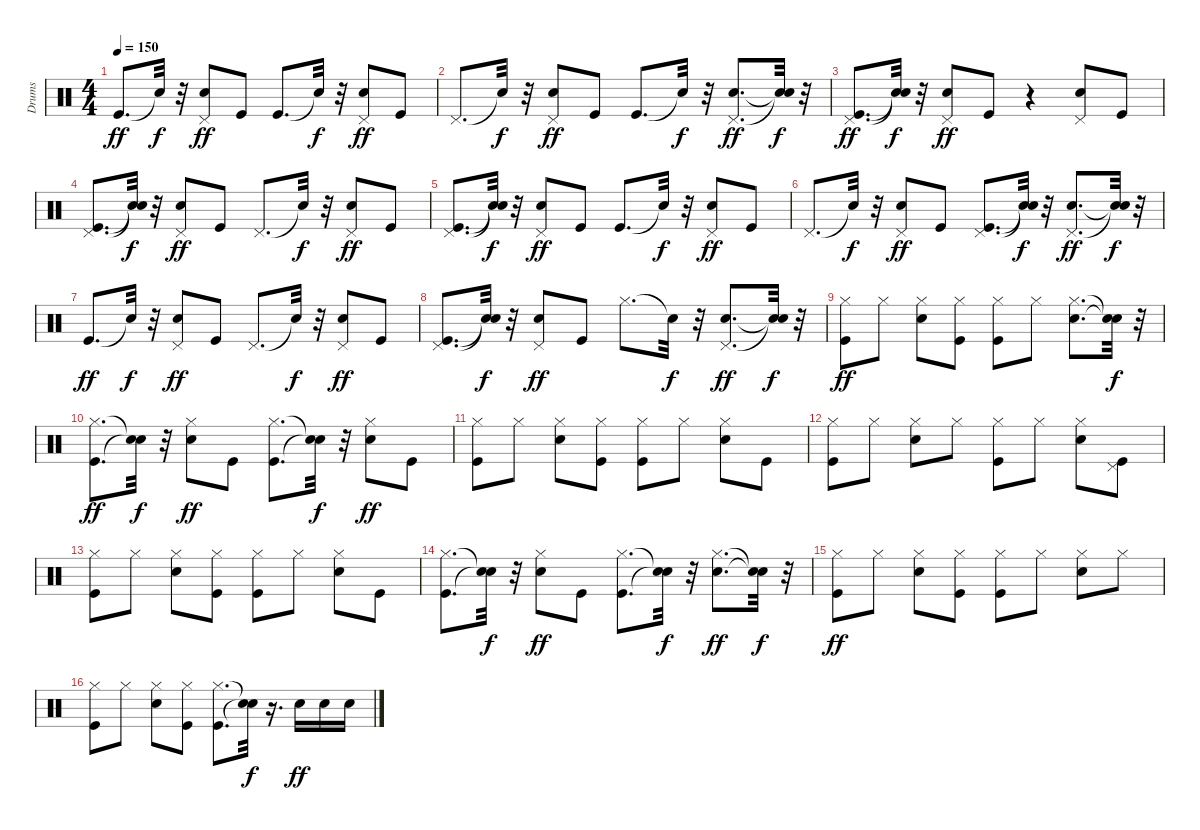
\track ("Drums" "Drums") {instrument percussion}
\staff {score}
\articulation defaults
\ts (4 4)
\tempo 150
\clef neutral
\ks c "Kick (hit)".8{d dy ff} "Snare (hit)"{t}.32{dy f}
r.32 ("Snare (hit) 2" "Pedal Hi-Hat (hit)").8{dy ff} "Kick (hit)".8 "Kick (hit)".8{d} "Snare (hit)"{t}.32{dy f} r.32 ("Snare (hit) 2" "Pedal Hi-Hat (hit)").8{dy ff} "Kick (hit)".8 |
"Pedal Hi-Hat (hit)".8{d} "Snare (hit)"{t}.32{dy f} r.32 ("Snare (hit) 2" "Pedal Hi-Hat (hit)").8{dy ff} "Kick (hit)".8 "Kick (hit)".8{d} "Snare (hit)"{t}.32{dy f} r.32 ("Snare (hit) 2" "Pedal Hi-Hat (hit)").8{d dy ff} ("Snare (hit)"{t} "Snare (hit)"{t}).32{dy f} r.32 |
("Kick (hit)" "Pedal Hi-Hat (hit)").8{d dy ff} ("Snare (hit)"{t} "Snare (hit)"{t}).32{dy f} r.32 ("Snare (hit) 2" "Pedal Hi-Hat (hit)").8{dy ff} "Kick (hit)".8 r.4 ("Snare (hit) 2" "Pedal Hi-Hat (hit)").8 "Kick (hit)".8 |
("Kick (hit)" "Pedal Hi-Hat (hit)").8{d} ("Snare (hit)"{t} "Snare (hit)"{t}).32{dy f} r.32 ("Snare (hit) 2" "Pedal Hi-Hat (hit)").8{dy ff} "Kick (hit)".8 "Pedal Hi-Hat (hit)".8{d} "Snare (hit)"{t}.32{dy f} r.32 ("Snare (hit) 2" "Pedal Hi-Hat (hit)").8{dy ff} "Kick (hit)".8 |
("Kick (hit)" "Pedal Hi-Hat (hit)").8{d} ("Snare (hit)"{t} "Snare (hit)"{t}).32{dy f} r.32 ("Snare (hit) 2" "Pedal Hi-Hat (hit)").8{dy ff} "Kick (hit)".8 "Kick (hit)".8{d} "Snare (hit)"{t}.32{dy f} r.32 ("Snare (hit) 2" "Pedal Hi-Hat (hit)").8{dy ff} "Kick (hit)".8 |
"Pedal Hi-Hat (hit)".8{d} "Snare (hit)"{t}.32{dy f} r.32 ("Snare (hit) 2" "Pedal Hi-Hat (hit)").8{dy ff} "Kick (hit)".8 ("Kick (hit)" "Pedal Hi-Hat (hit)").8{d} ("Snare (hit)"{t} "Snare (hit)"{t}).32{dy f} r.32 ("Snare (hit) 2" "Pedal Hi-Hat (hit)").8{d dy ff} ("Snare (hit)"{t} "Snare (hit)"{t}).32{dy f} r.32 |
"Kick (hit)".8{d dy ff} "Snare (hit)"{t}.32{dy f} r.32 ("Snare (hit) 2" "Pedal Hi-Hat (hit)").8{dy ff} "Kick (hit)".8 "Pedal Hi-Hat (hit)".8{d} "Snare (hit)"{t}.32{dy f} r.32 ("Snare (hit) 2" "Pedal Hi-Hat (hit)").8{dy ff} "Kick (hit)".8 |
("Kick (hit)" "Pedal Hi-Hat (hit)").8{d} ("Snare (hit)"{t} "Snare (hit)"{t}).32{dy f} r.32 ("Snare (hit) 2" "Pedal Hi-Hat (hit)").8{dy ff} "Kick (hit)".8 "Hi-Hat (closed)".8{d} "Snare (hit)"{t}.32{dy f} r.32 ("Snare (hit) 2" "Pedal Hi-Hat (hit)").8{d dy ff} ("Snare (hit)"{t} "Snare (hit)"{t}).32{dy f} r.32 |
("Kick (hit)" "Hi-Hat (closed)").8{dy ff} "Hi-Hat (closed)".8 ("Snare (hit) 2" "Hi-Hat (closed)").8 ("Kick (hit)" "Hi-Hat (closed)").8 ("Kick (hit)" "Hi-Hat (closed)").8 "Hi-Hat (closed)".8 ("Snare (hit) 2" "Hi-Hat (closed)").8{d} ("Snare (hit)"{t} "Snare (hit)"{t}).32{dy f} r.32 |
("Kick (hit)" "Hi-Hat (closed)").8{d dy ff} ("Snare (hit)"{t} "Snare (hit)"{t}).32{dy f} r.32 ("Snare (hit) 2" "Hi-Hat (closed)").8{dy ff} "Kick (hit)".8 ("Kick (hit)" "Hi-Hat (closed)").8{d} ("Snare (hit)"{t} "Snare (hit)"{t}).32{dy f} r.32 ("Snare (hit) 2" "Hi-Hat (closed)").8{dy ff} "Kick (hit)".8 |
("Kick (hit)" "Hi-Hat (closed)").8 "Hi-Hat (closed)".8 ("Snare (hit) 2" "Hi-Hat (closed)").8 ("Kick (hit)" "Hi-Hat (closed)").8 ("Kick (hit)" "Hi-Hat (closed)").8 "Hi-Hat (closed)".8 ("Snare (hit) 2" "Hi-Hat (closed)").8 "Kick (hit)".8 |
("Kick (hit)" "Hi-Hat (closed)").8 "Hi-Hat (closed)".8 ("Snare (hit) 2" "Hi-Hat (closed)").8 "Hi-Hat (closed)".8 ("Kick (hit)" "Hi-Hat (closed)").8 "Hi-Hat (closed)".8 ("Snare (hit) 2" "Hi-Hat (closed)").8 ("Kick (hit)" "Pedal Hi-Hat (hit)").8 |
("Kick (hit)" "Hi-Hat (closed)").8 "Hi-Hat (closed)".8 ("Snare (hit) 2" "Hi-Hat (closed)").8 ("Kick (hit)" "Hi-Hat (closed)").8 ("Kick (hit)" "Hi-Hat (closed)").8 "Hi-Hat (closed)".8 ("Snare (hit) 2" "Hi-Hat (closed)").8 "Kick (hit)".8 |
("Kick (hit)" "Hi-Hat (closed)").8{d} ("Snare (hit)"{t} "Snare (hit)"{t}).32{dy f} r.32 ("Snare (hit) 2" "Hi-Hat (closed)").8{dy ff} "Kick (hit)".8 ("Kick (hit)" "Hi-Hat (closed)").8{d} ("Snare (hit)"{t} "Snare (hit)"{t}).32{dy f} r.32 ("Snare (hit) 2" "Hi-Hat (closed)").8{d dy ff} ("Snare (hit)"{t} "Snare (hit)"{t}).32{dy f} r.32 |
("Kick (hit)" "Hi-Hat (closed)").8{dy ff} "Hi-Hat (closed)".8 ("Snare (hit) 2" "Hi-Hat (closed)").8 ("Kick (hit)" "Hi-Hat (closed)").8 ("Kick (hit)" "Hi-Hat (closed)").8 "Hi-Hat (closed)".8 ("Snare (hit) 2" "Hi-Hat (closed)").8 "Hi-Hat (closed)".8 |
("Kick (hit)" "Hi-Hat (closed)").8 "Hi-Hat (closed)".8 ("Snare (hit) 2" "Hi-Hat (closed)").8 ("Kick (hit)" "Hi-Hat (closed)").8 ("Kick (hit)" "Hi-Hat (closed)").8{d} ("Snare (hit)"{t} "Snare (hit)"{t}).32{dy f} r.16{d} "Snare (hit) 2".16{dy ff} "Snare (hit) 2".16 "Snare (hit) 2".16
